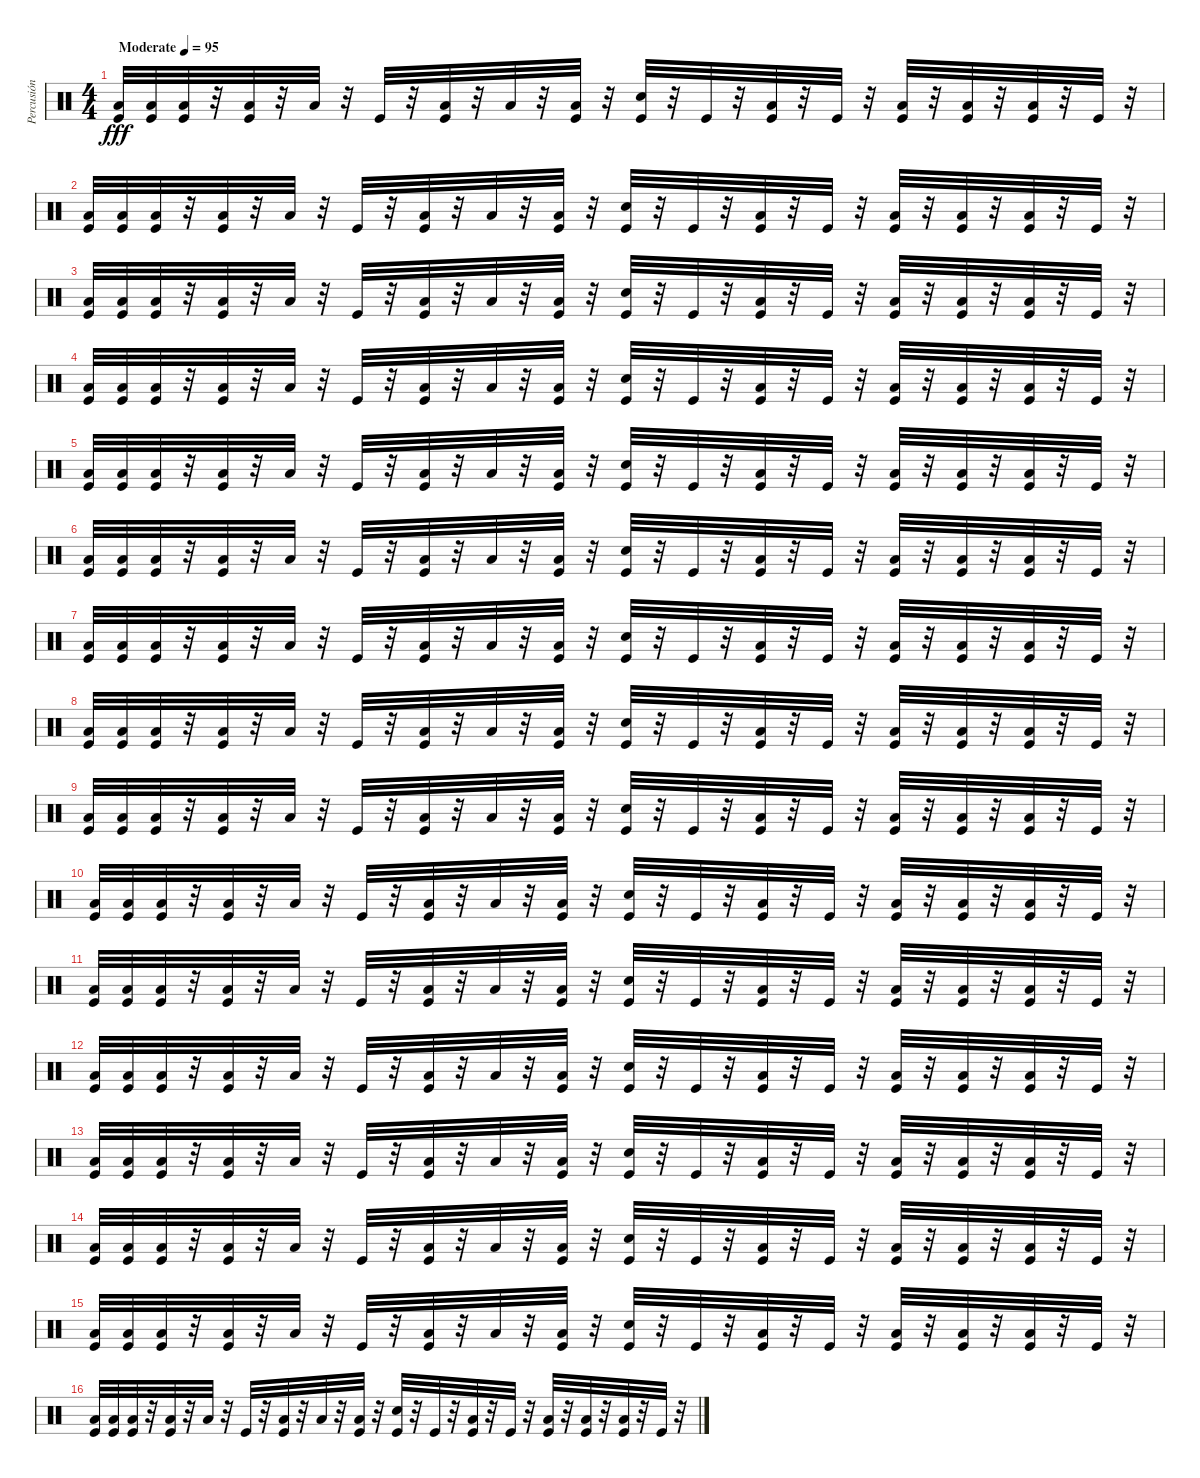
\track ("Percusión" "Percusión") {instrument percussion}
\staff {score}
\articulation defaults
\ts (4 4)
\tempo (95 "Moderate")
\clef neutral
\ks c
("Low Floor Tom (hit)" "Kick (hit)").32{dy fff} ("Low Floor Tom (hit)" "Kick (hit)").32 ("Low Floor Tom (hit)" "Kick (hit)").32 r.32 ("Low Floor Tom (hit)" "Kick (hit)").32 r.32 "Low Floor Tom (hit)".32 r.32 "Kick (hit)".32 r.32 ("Low Floor Tom (hit)" "Kick (hit)").32 r.32 "Low Floor Tom (hit)".32 r.32 ("Low Floor Tom (hit)" "Kick (hit)").32 r.32 ("Snare (hit) 2" "Kick (hit)").32 r.32 "Kick (hit)".32 r.32 ("Low Floor Tom (hit)" "Kick (hit)").32 r.32 "Kick (hit)".32 r.32 ("Low Floor Tom (hit)" "Kick (hit)").32 r.32 ("Low Floor Tom (hit)" "Kick (hit)").32 r.32 ("Low Floor Tom (hit)" "Kick (hit)").32 r.32 "Kick (hit)".32 r.32 |
("Low Floor Tom (hit)" "Kick (hit)").32 ("Low Floor Tom (hit)" "Kick (hit)").32 ("Low Floor Tom (hit)" "Kick (hit)").32 r.32 ("Low Floor Tom (hit)" "Kick (hit)").32 r.32 "Low Floor Tom (hit)".32 r.32 "Kick (hit)".32 r.32 ("Low Floor Tom (hit)" "Kick (hit)").32 r.32 "Low Floor Tom (hit)".32 r.32 ("Low Floor Tom (hit)" "Kick (hit)").32 r.32 ("Snare (hit) 2" "Kick (hit)").32 r.32 "Kick (hit)".32 r.32 ("Low Floor Tom (hit)" "Kick (hit)").32 r.32 "Kick (hit)".32 r.32 ("Low Floor Tom (hit)" "Kick (hit)").32 r.32 ("Low Floor Tom (hit)" "Kick (hit)").32 r.32 ("Low Floor Tom (hit)" "Kick (hit)").32 r.32 "Kick (hit)".32 r.32 |
("Low Floor Tom (hit)" "Kick (hit)").32 ("Low Floor Tom (hit)" "Kick (hit)").32 ("Low Floor Tom (hit)" "Kick (hit)").32 r.32 ("Low Floor Tom (hit)" "Kick (hit)").32 r.32 "Low Floor Tom (hit)".32 r.32 "Kick (hit)".32 r.32 ("Low Floor Tom (hit)" "Kick (hit)").32 r.32 "Low Floor Tom (hit)".32 r.32 ("Low Floor Tom (hit)" "Kick (hit)").32 r.32 ("Snare (hit) 2" "Kick (hit)").32 r.32 "Kick (hit)".32 r.32 ("Low Floor Tom (hit)" "Kick (hit)").32 r.32 "Kick (hit)".32 r.32 ("Low Floor Tom (hit)" "Kick (hit)").32 r.32 ("Low Floor Tom (hit)" "Kick (hit)").32 r.32 ("Low Floor Tom (hit)" "Kick (hit)").32 r.32 "Kick (hit)".32 r.32 |
("Low Floor Tom (hit)" "Kick (hit)").32 ("Low Floor Tom (hit)" "Kick (hit)").32 ("Low Floor Tom (hit)" "Kick (hit)").32 r.32 ("Low Floor Tom (hit)" "Kick (hit)").32 r.32 "Low Floor Tom (hit)".32 r.32 "Kick (hit)".32 r.32 ("Low Floor Tom (hit)" "Kick (hit)").32 r.32 "Low Floor Tom (hit)".32 r.32 ("Low Floor Tom (hit)" "Kick (hit)").32 r.32 ("Snare (hit) 2" "Kick (hit)").32 r.32 "Kick (hit)".32 r.32 ("Low Floor Tom (hit)" "Kick (hit)").32 r.32 "Kick (hit)".32 r.32 ("Low Floor Tom (hit)" "Kick (hit)").32 r.32 ("Low Floor Tom (hit)" "Kick (hit)").32 r.32 ("Low Floor Tom (hit)" "Kick (hit)").32 r.32 "Kick (hit)".32 r.32 |
("Low Floor Tom (hit)" "Kick (hit)").32 ("Low Floor Tom (hit)" "Kick (hit)").32 ("Low Floor Tom (hit)" "Kick (hit)").32 r.32 ("Low Floor Tom (hit)" "Kick (hit)").32 r.32 "Low Floor Tom (hit)".32 r.32 "Kick (hit)".32 r.32 ("Low Floor Tom (hit)" "Kick (hit)").32 r.32 "Low Floor Tom (hit)".32 r.32 ("Low Floor Tom (hit)" "Kick (hit)").32 r.32 ("Snare (hit) 2" "Kick (hit)").32 r.32 "Kick (hit)".32 r.32 ("Low Floor Tom (hit)" "Kick (hit)").32 r.32 "Kick (hit)".32 r.32 ("Low Floor Tom (hit)" "Kick (hit)").32 r.32 ("Low Floor Tom (hit)" "Kick (hit)").32 r.32 ("Low Floor Tom (hit)" "Kick (hit)").32 r.32 "Kick (hit)".32 r.32 |
("Low Floor Tom (hit)" "Kick (hit)").32 ("Low Floor Tom (hit)" "Kick (hit)").32 ("Low Floor Tom (hit)" "Kick (hit)").32 r.32 ("Low Floor Tom (hit)" "Kick (hit)").32 r.32 "Low Floor Tom (hit)".32 r.32 "Kick (hit)".32 r.32 ("Low Floor Tom (hit)" "Kick (hit)").32 r.32 "Low Floor Tom (hit)".32 r.32 ("Low Floor Tom (hit)" "Kick (hit)").32 r.32 ("Snare (hit) 2" "Kick (hit)").32 r.32 "Kick (hit)".32 r.32 ("Low Floor Tom (hit)" "Kick (hit)").32 r.32 "Kick (hit)".32 r.32 ("Low Floor Tom (hit)" "Kick (hit)").32 r.32 ("Low Floor Tom (hit)" "Kick (hit)").32 r.32 ("Low Floor Tom (hit)" "Kick (hit)").32 r.32 "Kick (hit)".32 r.32 |
("Low Floor Tom (hit)" "Kick (hit)").32 ("Low Floor Tom (hit)" "Kick (hit)").32 ("Low Floor Tom (hit)" "Kick (hit)").32 r.32 ("Low Floor Tom (hit)" "Kick (hit)").32 r.32 "Low Floor Tom (hit)".32 r.32 "Kick (hit)".32 r.32 ("Low Floor Tom (hit)" "Kick (hit)").32 r.32 "Low Floor Tom (hit)".32 r.32 ("Low Floor Tom (hit)" "Kick (hit)").32 r.32 ("Snare (hit) 2" "Kick (hit)").32 r.32 "Kick (hit)".32 r.32 ("Low Floor Tom (hit)" "Kick (hit)").32 r.32 "Kick (hit)".32 r.32 ("Low Floor Tom (hit)" "Kick (hit)").32 r.32 ("Low Floor Tom (hit)" "Kick (hit)").32 r.32 ("Low Floor Tom (hit)" "Kick (hit)").32 r.32 "Kick (hit)".32 r.32 |
("Low Floor Tom (hit)" "Kick (hit)").32 ("Low Floor Tom (hit)" "Kick (hit)").32 ("Low Floor Tom (hit)" "Kick (hit)").32 r.32 ("Low Floor Tom (hit)" "Kick (hit)").32 r.32 "Low Floor Tom (hit)".32 r.32 "Kick (hit)".32 r.32 ("Low Floor Tom (hit)" "Kick (hit)").32 r.32 "Low Floor Tom (hit)".32 r.32 ("Low Floor Tom (hit)" "Kick (hit)").32 r.32 ("Snare (hit) 2" "Kick (hit)").32 r.32 "Kick (hit)".32 r.32 ("Low Floor Tom (hit)" "Kick (hit)").32 r.32 "Kick (hit)".32 r.32 ("Low Floor Tom (hit)" "Kick (hit)").32 r.32 ("Low Floor Tom (hit)" "Kick (hit)").32 r.32 ("Low Floor Tom (hit)" "Kick (hit)").32 r.32 "Kick (hit)".32 r.32 |
("Low Floor Tom (hit)" "Kick (hit)").32 ("Low Floor Tom (hit)" "Kick (hit)").32 ("Low Floor Tom (hit)" "Kick (hit)").32 r.32 ("Low Floor Tom (hit)" "Kick (hit)").32 r.32 "Low Floor Tom (hit)".32 r.32 "Kick (hit)".32 r.32 ("Low Floor Tom (hit)" "Kick (hit)").32 r.32 "Low Floor Tom (hit)".32 r.32 ("Low Floor Tom (hit)" "Kick (hit)").32 r.32 ("Snare (hit) 2" "Kick (hit)").32 r.32 "Kick (hit)".32 r.32 ("Low Floor Tom (hit)" "Kick (hit)").32 r.32 "Kick (hit)".32 r.32 ("Low Floor Tom (hit)" "Kick (hit)").32 r.32 ("Low Floor Tom (hit)" "Kick (hit)").32 r.32 ("Low Floor Tom (hit)" "Kick (hit)").32 r.32 "Kick (hit)".32 r.32 |
("Low Floor Tom (hit)" "Kick (hit)").32 ("Low Floor Tom (hit)" "Kick (hit)").32 ("Low Floor Tom (hit)" "Kick (hit)").32 r.32 ("Low Floor Tom (hit)" "Kick (hit)").32 r.32 "Low Floor Tom (hit)".32 r.32 "Kick (hit)".32 r.32 ("Low Floor Tom (hit)" "Kick (hit)").32 r.32 "Low Floor Tom (hit)".32 r.32 ("Low Floor Tom (hit)" "Kick (hit)").32 r.32 ("Snare (hit) 2" "Kick (hit)").32 r.32 "Kick (hit)".32 r.32 ("Low Floor Tom (hit)" "Kick (hit)").32 r.32 "Kick (hit)".32 r.32 ("Low Floor Tom (hit)" "Kick (hit)").32 r.32 ("Low Floor Tom (hit)" "Kick (hit)").32 r.32 ("Low Floor Tom (hit)" "Kick (hit)").32 r.32 "Kick (hit)".32 r.32 |
("Low Floor Tom (hit)" "Kick (hit)").32 ("Low Floor Tom (hit)" "Kick (hit)").32 ("Low Floor Tom (hit)" "Kick (hit)").32 r.32 ("Low Floor Tom (hit)" "Kick (hit)").32 r.32 "Low Floor Tom (hit)".32 r.32 "Kick (hit)".32 r.32 ("Low Floor Tom (hit)" "Kick (hit)").32 r.32 "Low Floor Tom (hit)".32 r.32 ("Low Floor Tom (hit)" "Kick (hit)").32 r.32 ("Snare (hit) 2" "Kick (hit)").32 r.32 "Kick (hit)".32 r.32 ("Low Floor Tom (hit)" "Kick (hit)").32 r.32 "Kick (hit)".32 r.32 ("Low Floor Tom (hit)" "Kick (hit)").32 r.32 ("Low Floor Tom (hit)" "Kick (hit)").32 r.32 ("Low Floor Tom (hit)" "Kick (hit)").32 r.32 "Kick (hit)".32 r.32 |
("Low Floor Tom (hit)" "Kick (hit)").32 ("Low Floor Tom (hit)" "Kick (hit)").32 ("Low Floor Tom (hit)" "Kick (hit)").32 r.32 ("Low Floor Tom (hit)" "Kick (hit)").32 r.32 "Low Floor Tom (hit)".32 r.32 "Kick (hit)".32 r.32 ("Low Floor Tom (hit)" "Kick (hit)").32 r.32 "Low Floor Tom (hit)".32 r.32 ("Low Floor Tom (hit)" "Kick (hit)").32 r.32 ("Snare (hit) 2" "Kick (hit)").32 r.32 "Kick (hit)".32 r.32 ("Low Floor Tom (hit)" "Kick (hit)").32 r.32 "Kick (hit)".32 r.32 ("Low Floor Tom (hit)" "Kick (hit)").32 r.32 ("Low Floor Tom (hit)" "Kick (hit)").32 r.32 ("Low Floor Tom (hit)" "Kick (hit)").32 r.32 "Kick (hit)".32 r.32 |
("Low Floor Tom (hit)" "Kick (hit)").32 ("Low Floor Tom (hit)" "Kick (hit)").32 ("Low Floor Tom (hit)" "Kick (hit)").32 r.32 ("Low Floor Tom (hit)" "Kick (hit)").32 r.32 "Low Floor Tom (hit)".32 r.32 "Kick (hit)".32 r.32 ("Low Floor Tom (hit)" "Kick (hit)").32 r.32 "Low Floor Tom (hit)".32 r.32 ("Low Floor Tom (hit)" "Kick (hit)").32 r.32 ("Snare (hit) 2" "Kick (hit)").32 r.32 "Kick (hit)".32 r.32 ("Low Floor Tom (hit)" "Kick (hit)").32 r.32 "Kick (hit)".32 r.32 ("Low Floor Tom (hit)" "Kick (hit)").32 r.32 ("Low Floor Tom (hit)" "Kick (hit)").32 r.32 ("Low Floor Tom (hit)" "Kick (hit)").32 r.32 "Kick (hit)".32 r.32 |
("Low Floor Tom (hit)" "Kick (hit)").32 ("Low Floor Tom (hit)" "Kick (hit)").32 ("Low Floor Tom (hit)" "Kick (hit)").32 r.32 ("Low Floor Tom (hit)" "Kick (hit)").32 r.32 "Low Floor Tom (hit)".32 r.32 "Kick (hit)".32 r.32 ("Low Floor Tom (hit)" "Kick (hit)").32 r.32 "Low Floor Tom (hit)".32 r.32 ("Low Floor Tom (hit)" "Kick (hit)").32 r.32 ("Snare (hit) 2" "Kick (hit)").32 r.32 "Kick (hit)".32 r.32 ("Low Floor Tom (hit)" "Kick (hit)").32 r.32 "Kick (hit)".32 r.32 ("Low Floor Tom (hit)" "Kick (hit)").32 r.32 ("Low Floor Tom (hit)" "Kick (hit)").32 r.32 ("Low Floor Tom (hit)" "Kick (hit)").32 r.32 "Kick (hit)".32 r.32 |
("Low Floor Tom (hit)" "Kick (hit)").32 ("Low Floor Tom (hit)" "Kick (hit)").32 ("Low Floor Tom (hit)" "Kick (hit)").32 r.32 ("Low Floor Tom (hit)" "Kick (hit)").32 r.32 "Low Floor Tom (hit)".32 r.32 "Kick (hit)".32 r.32 ("Low Floor Tom (hit)" "Kick (hit)").32 r.32 "Low Floor Tom (hit)".32 r.32 ("Low Floor Tom (hit)" "Kick (hit)").32 r.32 ("Snare (hit) 2" "Kick (hit)").32 r.32 "Kick (hit)".32 r.32 ("Low Floor Tom (hit)" "Kick (hit)").32 r.32 "Kick (hit)".32 r.32 ("Low Floor Tom (hit)" "Kick (hit)").32 r.32 ("Low Floor Tom (hit)" "Kick (hit)").32 r.32 ("Low Floor Tom (hit)" "Kick (hit)").32 r.32 "Kick (hit)".32 r.32 |
("Low Floor Tom (hit)" "Kick (hit)").32 ("Low Floor Tom (hit)" "Kick (hit)").32 ("Low Floor Tom (hit)" "Kick (hit)").32 r.32 ("Low Floor Tom (hit)" "Kick (hit)").32 r.32 "Low Floor Tom (hit)".32 r.32 "Kick (hit)".32 r.32 ("Low Floor Tom (hit)" "Kick (hit)").32 r.32 "Low Floor Tom (hit)".32 r.32 ("Low Floor Tom (hit)" "Kick (hit)").32 r.32 ("Snare (hit) 2" "Kick (hit)").32 r.32 "Kick (hit)".32 r.32 ("Low Floor Tom (hit)" "Kick (hit)").32 r.32 "Kick (hit)".32 r.32 ("Low Floor Tom (hit)" "Kick (hit)").32 r.32 ("Low Floor Tom (hit)" "Kick (hit)").32 r.32 ("Low Floor Tom (hit)" "Kick (hit)").32 r.32 "Kick (hit)".32 r.32
